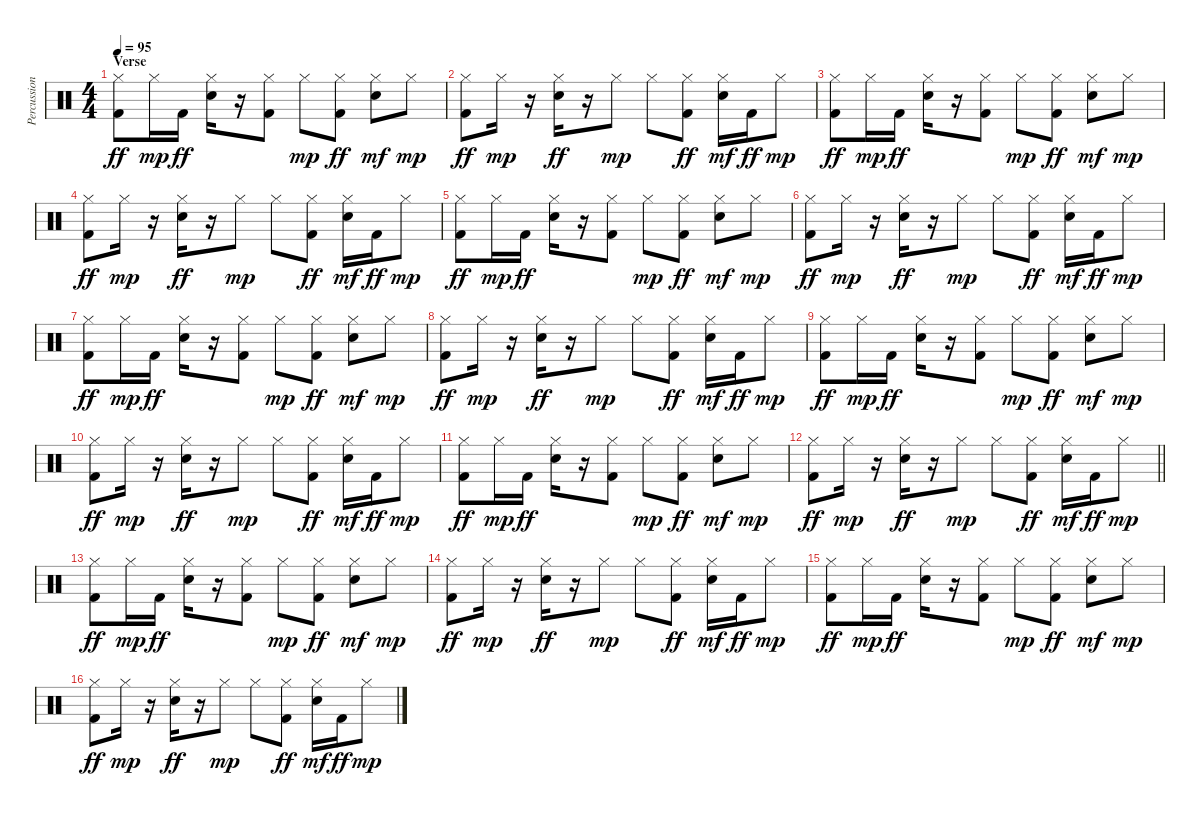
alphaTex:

\track ("Percussion" "Percussion") {instrument percussion}
\staff {score}
\articulation defaults
\ts (4 4)
\section ("" "Verse")
\tempo 95
\clef neutral
\ks c
("Hi-Hat (closed)" "Kick (hit) 2").8{dy ff} "Hi-Hat (closed)".16{dy mp} "Kick (hit) 2".16{dy ff} ("Hi-Hat (closed)" "Snare (hit) 2").16 r.16 ("Hi-Hat (closed)" "Kick (hit) 2").8 "Hi-Hat (closed)".8{dy mp} ("Hi-Hat (closed)" "Kick (hit) 2").8{dy ff} ("Hi-Hat (closed)" "Snare (hit) 2").8{dy mf} "Hi-Hat (closed)".8{dy mp} |
("Hi-Hat (closed)" "Kick (hit) 2").8{dy ff} "Hi-Hat (closed)".16{dy mp} r.16 ("Hi-Hat (closed)" "Snare (hit) 2").16{dy ff} r.16 "Hi-Hat (closed)".8{dy mp} "Hi-Hat (closed)".8 ("Hi-Hat (closed)" "Kick (hit) 2").8{dy ff} ("Hi-Hat (closed)" "Snare (hit) 2").16{dy mf} "Kick (hit) 2".16{dy ff} "Hi-Hat (closed)".8{dy mp} |
("Hi-Hat (closed)" "Kick (hit) 2").8{dy ff} "Hi-Hat (closed)".16{dy mp} "Kick (hit) 2".16{dy ff} ("Hi-Hat (closed)" "Snare (hit) 2").16 r.16 ("Hi-Hat (closed)" "Kick (hit) 2").8 "Hi-Hat (closed)".8{dy mp} ("Hi-Hat (closed)" "Kick (hit) 2").8{dy ff} ("Hi-Hat (closed)" "Snare (hit) 2").8{dy mf} "Hi-Hat (closed)".8{dy mp} |
("Hi-Hat (closed)" "Kick (hit) 2").8{dy ff} "Hi-Hat (closed)".16{dy mp} r.16 ("Hi-Hat (closed)" "Snare (hit) 2").16{dy ff} r.16 "Hi-Hat (closed)".8{dy mp} "Hi-Hat (closed)".8 ("Hi-Hat (closed)" "Kick (hit) 2").8{dy ff} ("Hi-Hat (closed)" "Snare (hit) 2").16{dy mf} "Kick (hit) 2".16{dy ff} "Hi-Hat (closed)".8{dy mp} |
("Hi-Hat (closed)" "Kick (hit) 2").8{dy ff} "Hi-Hat (closed)".16{dy mp} "Kick (hit) 2".16{dy ff} ("Hi-Hat (closed)" "Snare (hit) 2").16 r.16 ("Hi-Hat (closed)" "Kick (hit) 2").8 "Hi-Hat (closed)".8{dy mp} ("Hi-Hat (closed)" "Kick (hit) 2").8{dy ff} ("Hi-Hat (closed)" "Snare (hit) 2").8{dy mf} "Hi-Hat (closed)".8{dy mp} |
("Hi-Hat (closed)" "Kick (hit) 2").8{dy ff} "Hi-Hat (closed)".16{dy mp} r.16 ("Hi-Hat (closed)" "Snare (hit) 2").16{dy ff} r.16 "Hi-Hat (closed)".8{dy mp} "Hi-Hat (closed)".8 ("Hi-Hat (closed)" "Kick (hit) 2").8{dy ff} ("Hi-Hat (closed)" "Snare (hit) 2").16{dy mf} "Kick (hit) 2".16{dy ff} "Hi-Hat (closed)".8{dy mp} |
("Hi-Hat (closed)" "Kick (hit) 2").8{dy ff} "Hi-Hat (closed)".16{dy mp} "Kick (hit) 2".16{dy ff} ("Hi-Hat (closed)" "Snare (hit) 2").16 r.16 ("Hi-Hat (closed)" "Kick (hit) 2").8 "Hi-Hat (closed)".8{dy mp} ("Hi-Hat (closed)" "Kick (hit) 2").8{dy ff} ("Hi-Hat (closed)" "Snare (hit) 2").8{dy mf} "Hi-Hat (closed)".8{dy mp} |
("Hi-Hat (closed)" "Kick (hit) 2").8{dy ff} "Hi-Hat (closed)".16{dy mp} r.16 ("Hi-Hat (closed)" "Snare (hit) 2").16{dy ff} r.16 "Hi-Hat (closed)".8{dy mp} "Hi-Hat (closed)".8 ("Hi-Hat (closed)" "Kick (hit) 2").8{dy ff} ("Hi-Hat (closed)" "Snare (hit) 2").16{dy mf} "Kick (hit) 2".16{dy ff} "Hi-Hat (closed)".8{dy mp} |
("Hi-Hat (closed)" "Kick (hit) 2").8{dy ff} "Hi-Hat (closed)".16{dy mp} "Kick (hit) 2".16{dy ff} ("Hi-Hat (closed)" "Snare (hit) 2").16 r.16 ("Hi-Hat (closed)" "Kick (hit) 2").8 "Hi-Hat (closed)".8{dy mp} ("Hi-Hat (closed)" "Kick (hit) 2").8{dy ff} ("Hi-Hat (closed)" "Snare (hit) 2").8{dy mf} "Hi-Hat (closed)".8{dy mp} |
("Hi-Hat (closed)" "Kick (hit) 2").8{dy ff} "Hi-Hat (closed)".16{dy mp} r.16 ("Hi-Hat (closed)" "Snare (hit) 2").16{dy ff} r.16 "Hi-Hat (closed)".8{dy mp} "Hi-Hat (closed)".8 ("Hi-Hat (closed)" "Kick (hit) 2").8{dy ff} ("Hi-Hat (closed)" "Snare (hit) 2").16{dy mf} "Kick (hit) 2".16{dy ff} "Hi-Hat (closed)".8{dy mp} |
("Hi-Hat (closed)" "Kick (hit) 2").8{dy ff} "Hi-Hat (closed)".16{dy mp} "Kick (hit) 2".16{dy ff} ("Hi-Hat (closed)" "Snare (hit) 2").16 r.16 ("Hi-Hat (closed)" "Kick (hit) 2").8 "Hi-Hat (closed)".8{dy mp} ("Hi-Hat (closed)" "Kick (hit) 2").8{dy ff} ("Hi-Hat (closed)" "Snare (hit) 2").8{dy mf} "Hi-Hat (closed)".8{dy mp} |
\barLineRight lightlight
("Hi-Hat (closed)" "Kick (hit) 2").8{dy ff} "Hi-Hat (closed)".16{dy mp} r.16 ("Hi-Hat (closed)" "Snare (hit) 2").16{dy ff} r.16 "Hi-Hat (closed)".8{dy mp} "Hi-Hat (closed)".8 ("Hi-Hat (closed)" "Kick (hit) 2").8{dy ff} ("Hi-Hat (closed)" "Snare (hit) 2").16{dy mf} "Kick (hit) 2".16{dy ff} "Hi-Hat (closed)".8{dy mp} |
("Hi-Hat (closed)" "Kick (hit) 2").8{dy ff} "Hi-Hat (closed)".16{dy mp} "Kick (hit) 2".16{dy ff} ("Hi-Hat (closed)" "Snare (hit) 2").16 r.16 ("Hi-Hat (closed)" "Kick (hit) 2").8 "Hi-Hat (closed)".8{dy mp} ("Hi-Hat (closed)" "Kick (hit) 2").8{dy ff} ("Hi-Hat (closed)" "Snare (hit) 2").8{dy mf} "Hi-Hat (closed)".8{dy mp} |
("Hi-Hat (closed)" "Kick (hit) 2").8{dy ff} "Hi-Hat (closed)".16{dy mp} r.16 ("Hi-Hat (closed)" "Snare (hit) 2").16{dy ff} r.16 "Hi-Hat (closed)".8{dy mp} "Hi-Hat (closed)".8 ("Hi-Hat (closed)" "Kick (hit) 2").8{dy ff} ("Hi-Hat (closed)" "Snare (hit) 2").16{dy mf} "Kick (hit) 2".16{dy ff} "Hi-Hat (closed)".8{dy mp} |
("Hi-Hat (closed)" "Kick (hit) 2").8{dy ff} "Hi-Hat (closed)".16{dy mp} "Kick (hit) 2".16{dy ff} ("Hi-Hat (closed)" "Snare (hit) 2").16 r.16 ("Hi-Hat (closed)" "Kick (hit) 2").8 "Hi-Hat (closed)".8{dy mp} ("Hi-Hat (closed)" "Kick (hit) 2").8{dy ff} ("Hi-Hat (closed)" "Snare (hit) 2").8{dy mf} "Hi-Hat (closed)".8{dy mp} |
("Hi-Hat (closed)" "Kick (hit) 2").8{dy ff} "Hi-Hat (closed)".16{dy mp} r.16 ("Hi-Hat (closed)" "Snare (hit) 2").16{dy ff} r.16 "Hi-Hat (closed)".8{dy mp} "Hi-Hat (closed)".8 ("Hi-Hat (closed)" "Kick (hit) 2").8{dy ff} ("Hi-Hat (closed)" "Snare (hit) 2").16{dy mf} "Kick (hit) 2".16{dy ff} "Hi-Hat (closed)".8{dy mp}
